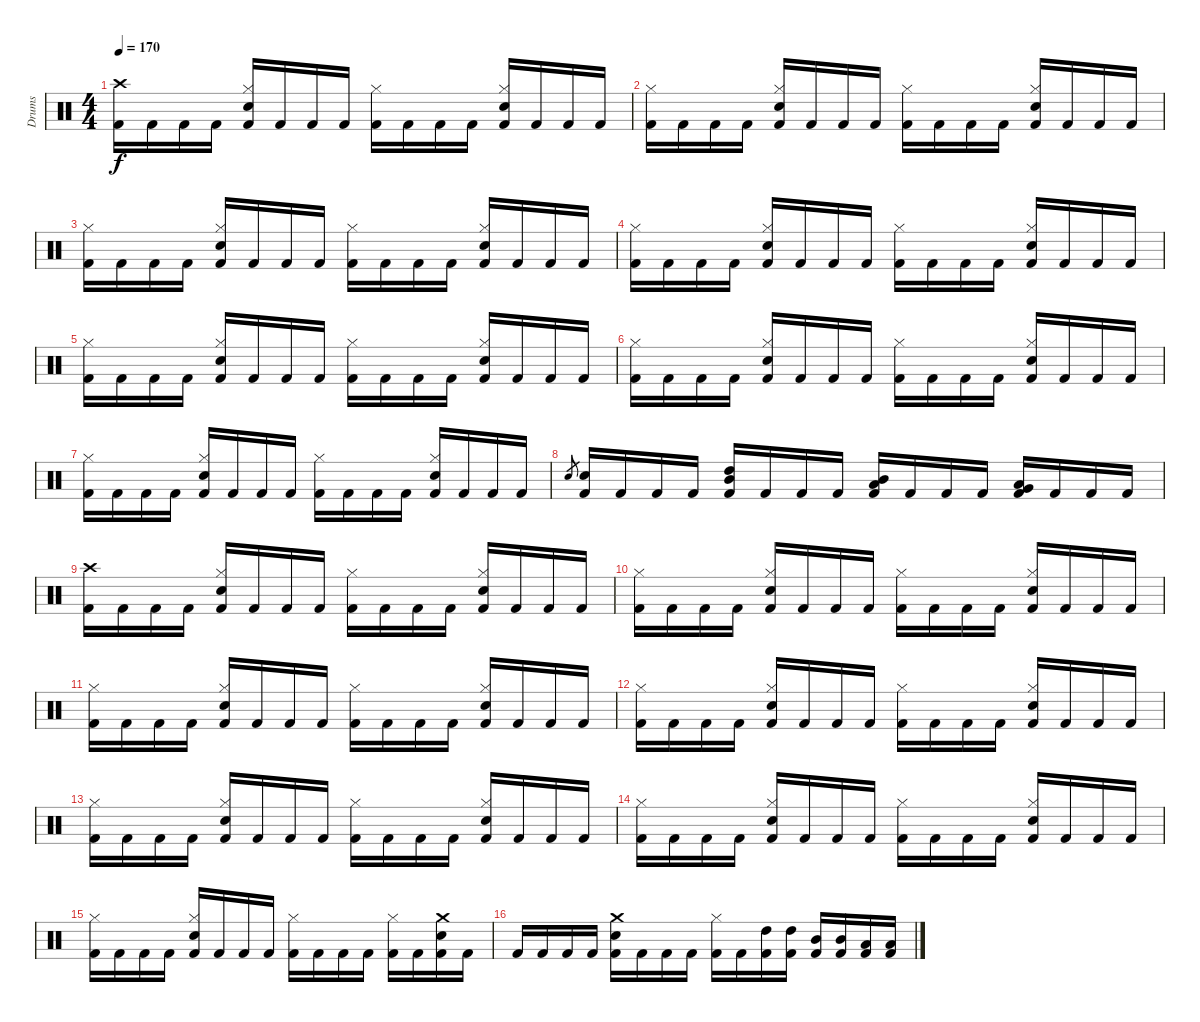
\track ("Drums" "Drums") {instrument percussion}
\staff {score}
\articulation defaults
\ts (4 4)
\tempo 170
\clef neutral
\ks c
("Crash high (hit)" "Kick (hit) 2").16{dy f} "Kick (hit) 2".16 "Kick (hit) 2".16 "Kick (hit) 2".16 ("Hi-Hat (closed)" "Snare (hit) 2" "Kick (hit) 2").16 "Kick (hit) 2".16 "Kick (hit) 2".16 "Kick (hit) 2".16 ("Hi-Hat (closed)" "Kick (hit) 2").16 "Kick (hit) 2".16 "Kick (hit) 2".16 "Kick (hit) 2".16 ("Hi-Hat (closed)" "Snare (hit) 2" "Kick (hit) 2").16 "Kick (hit) 2".16 "Kick (hit) 2".16 "Kick (hit) 2".16 |
("Hi-Hat (closed)" "Kick (hit) 2").16 "Kick (hit) 2".16 "Kick (hit) 2".16 "Kick (hit) 2".16 ("Hi-Hat (closed)" "Snare (hit) 2" "Kick (hit) 2").16 "Kick (hit) 2".16 "Kick (hit) 2".16 "Kick (hit) 2".16 ("Hi-Hat (closed)" "Kick (hit) 2").16 "Kick (hit) 2".16 "Kick (hit) 2".16 "Kick (hit) 2".16 ("Hi-Hat (closed)" "Snare (hit) 2" "Kick (hit) 2").16 "Kick (hit) 2".16 "Kick (hit) 2".16 "Kick (hit) 2".16 |
("Hi-Hat (closed)" "Kick (hit) 2").16 "Kick (hit) 2".16 "Kick (hit) 2".16 "Kick (hit) 2".16 ("Hi-Hat (closed)" "Snare (hit) 2" "Kick (hit) 2").16 "Kick (hit) 2".16 "Kick (hit) 2".16 "Kick (hit) 2".16 ("Hi-Hat (closed)" "Kick (hit) 2").16 "Kick (hit) 2".16 "Kick (hit) 2".16 "Kick (hit) 2".16 ("Hi-Hat (closed)" "Snare (hit) 2" "Kick (hit) 2").16 "Kick (hit) 2".16 "Kick (hit) 2".16 "Kick (hit) 2".16 |
("Hi-Hat (closed)" "Kick (hit) 2").16 "Kick (hit) 2".16 "Kick (hit) 2".16 "Kick (hit) 2".16 ("Hi-Hat (closed)" "Snare (hit) 2" "Kick (hit) 2").16 "Kick (hit) 2".16 "Kick (hit) 2".16 "Kick (hit) 2".16 ("Hi-Hat (closed)" "Kick (hit) 2").16 "Kick (hit) 2".16 "Kick (hit) 2".16 "Kick (hit) 2".16 ("Hi-Hat (closed)" "Snare (hit) 2" "Kick (hit) 2").16 "Kick (hit) 2".16 "Kick (hit) 2".16 "Kick (hit) 2".16 |
("Hi-Hat (closed)" "Kick (hit) 2").16 "Kick (hit) 2".16 "Kick (hit) 2".16 "Kick (hit) 2".16 ("Hi-Hat (closed)" "Snare (hit) 2" "Kick (hit) 2").16 "Kick (hit) 2".16 "Kick (hit) 2".16 "Kick (hit) 2".16 ("Hi-Hat (closed)" "Kick (hit) 2").16 "Kick (hit) 2".16 "Kick (hit) 2".16 "Kick (hit) 2".16 ("Hi-Hat (closed)" "Snare (hit) 2" "Kick (hit) 2").16 "Kick (hit) 2".16 "Kick (hit) 2".16 "Kick (hit) 2".16 |
("Hi-Hat (closed)" "Kick (hit) 2").16 "Kick (hit) 2".16 "Kick (hit) 2".16 "Kick (hit) 2".16 ("Hi-Hat (closed)" "Snare (hit) 2" "Kick (hit) 2").16 "Kick (hit) 2".16 "Kick (hit) 2".16 "Kick (hit) 2".16 ("Hi-Hat (closed)" "Kick (hit) 2").16 "Kick (hit) 2".16 "Kick (hit) 2".16 "Kick (hit) 2".16 ("Hi-Hat (closed)" "Snare (hit) 2" "Kick (hit) 2").16 "Kick (hit) 2".16 "Kick (hit) 2".16 "Kick (hit) 2".16 |
("Hi-Hat (closed)" "Kick (hit) 2").16 "Kick (hit) 2".16 "Kick (hit) 2".16 "Kick (hit) 2".16 ("Hi-Hat (closed)" "Snare (hit) 2" "Kick (hit) 2").16 "Kick (hit) 2".16 "Kick (hit) 2".16 "Kick (hit) 2".16 ("Hi-Hat (closed)" "Kick (hit) 2").16 "Kick (hit) 2".16 "Kick (hit) 2".16 "Kick (hit) 2".16 ("Hi-Hat (closed)" "Snare (hit) 2" "Kick (hit) 2").16 "Kick (hit) 2".16 "Kick (hit) 2".16 "Kick (hit) 2".16 |
"Snare (hit) 2".8{gr} ("Snare (hit) 2" "Kick (hit) 2").16 "Kick (hit) 2".16 "Kick (hit) 2".16 "Kick (hit) 2".16 ("High Tom (hit)" "Mid Tom (hit)" "Kick (hit) 2").16 "Kick (hit) 2".16 "Kick (hit) 2".16 "Kick (hit) 2".16 ("Mid Tom (hit)" "Low Tom (hit)" "Kick (hit) 2").16 "Kick (hit) 2".16 "Kick (hit) 2".16 "Kick (hit) 2".16 ("Low Tom (hit)" "Very Low Tom (hit)" "Kick (hit) 2").16 "Kick (hit) 2".16 "Kick (hit) 2".16 "Kick (hit) 2".16 |
("Crash high (hit)" "Kick (hit) 2").16 "Kick (hit) 2".16 "Kick (hit) 2".16 "Kick (hit) 2".16 ("Hi-Hat (closed)" "Snare (hit) 2" "Kick (hit) 2").16 "Kick (hit) 2".16 "Kick (hit) 2".16 "Kick (hit) 2".16 ("Hi-Hat (closed)" "Kick (hit) 2").16 "Kick (hit) 2".16 "Kick (hit) 2".16 "Kick (hit) 2".16 ("Hi-Hat (closed)" "Snare (hit) 2" "Kick (hit) 2").16 "Kick (hit) 2".16 "Kick (hit) 2".16 "Kick (hit) 2".16 |
("Hi-Hat (closed)" "Kick (hit) 2").16 "Kick (hit) 2".16 "Kick (hit) 2".16 "Kick (hit) 2".16 ("Hi-Hat (closed)" "Snare (hit) 2" "Kick (hit) 2").16 "Kick (hit) 2".16 "Kick (hit) 2".16 "Kick (hit) 2".16 ("Hi-Hat (closed)" "Kick (hit) 2").16 "Kick (hit) 2".16 "Kick (hit) 2".16 "Kick (hit) 2".16 ("Hi-Hat (closed)" "Snare (hit) 2" "Kick (hit) 2").16 "Kick (hit) 2".16 "Kick (hit) 2".16 "Kick (hit) 2".16 |
("Hi-Hat (closed)" "Kick (hit) 2").16 "Kick (hit) 2".16 "Kick (hit) 2".16 "Kick (hit) 2".16 ("Hi-Hat (closed)" "Snare (hit) 2" "Kick (hit) 2").16 "Kick (hit) 2".16 "Kick (hit) 2".16 "Kick (hit) 2".16 ("Hi-Hat (closed)" "Kick (hit) 2").16 "Kick (hit) 2".16 "Kick (hit) 2".16 "Kick (hit) 2".16 ("Hi-Hat (closed)" "Snare (hit) 2" "Kick (hit) 2").16 "Kick (hit) 2".16 "Kick (hit) 2".16 "Kick (hit) 2".16 |
("Hi-Hat (closed)" "Kick (hit) 2").16 "Kick (hit) 2".16 "Kick (hit) 2".16 "Kick (hit) 2".16 ("Hi-Hat (closed)" "Snare (hit) 2" "Kick (hit) 2").16 "Kick (hit) 2".16 "Kick (hit) 2".16 "Kick (hit) 2".16 ("Hi-Hat (closed)" "Kick (hit) 2").16 "Kick (hit) 2".16 "Kick (hit) 2".16 "Kick (hit) 2".16 ("Hi-Hat (closed)" "Snare (hit) 2" "Kick (hit) 2").16 "Kick (hit) 2".16 "Kick (hit) 2".16 "Kick (hit) 2".16 |
("Hi-Hat (closed)" "Kick (hit) 2").16 "Kick (hit) 2".16 "Kick (hit) 2".16 "Kick (hit) 2".16 ("Hi-Hat (closed)" "Snare (hit) 2" "Kick (hit) 2").16 "Kick (hit) 2".16 "Kick (hit) 2".16 "Kick (hit) 2".16 ("Hi-Hat (closed)" "Kick (hit) 2").16 "Kick (hit) 2".16 "Kick (hit) 2".16 "Kick (hit) 2".16 ("Hi-Hat (closed)" "Snare (hit) 2" "Kick (hit) 2").16 "Kick (hit) 2".16 "Kick (hit) 2".16 "Kick (hit) 2".16 |
("Hi-Hat (closed)" "Kick (hit) 2").16 "Kick (hit) 2".16 "Kick (hit) 2".16 "Kick (hit) 2".16 ("Hi-Hat (closed)" "Snare (hit) 2" "Kick (hit) 2").16 "Kick (hit) 2".16 "Kick (hit) 2".16 "Kick (hit) 2".16 ("Hi-Hat (closed)" "Kick (hit) 2").16 "Kick (hit) 2".16 "Kick (hit) 2".16 "Kick (hit) 2".16 ("Hi-Hat (closed)" "Snare (hit) 2" "Kick (hit) 2").16 "Kick (hit) 2".16 "Kick (hit) 2".16 "Kick (hit) 2".16 |
("Hi-Hat (closed)" "Kick (hit) 2").16 "Kick (hit) 2".16 "Kick (hit) 2".16 "Kick (hit) 2".16 ("Hi-Hat (closed)" "Snare (hit) 2" "Kick (hit) 2").16 "Kick (hit) 2".16 "Kick (hit) 2".16 "Kick (hit) 2".16 ("Hi-Hat (closed)" "Kick (hit) 2").16 "Kick (hit) 2".16 "Kick (hit) 2".16 "Kick (hit) 2".16 ("Hi-Hat (closed)" "Kick (hit) 2").16 "Kick (hit) 2".16 ("Crash medium (hit)" "Snare (hit) 2" "Kick (hit) 2").16 "Kick (hit) 2".16 |
"Kick (hit) 2".16 "Kick (hit) 2".16 "Kick (hit) 2".16 "Kick (hit) 2".16 ("Crash medium (hit)" "Snare (hit) 2" "Kick (hit) 2").16 "Kick (hit) 2".16 "Kick (hit) 2".16 "Kick (hit) 2".16 ("Hi-Hat (closed)" "Kick (hit) 2").16 "Kick (hit) 2".16 ("High Tom (hit)" "Kick (hit) 2").16 ("High Tom (hit)" "Kick (hit) 2").16 ("Mid Tom (hit)" "Kick (hit) 2").16 ("Mid Tom (hit)" "Kick (hit) 2").16 ("Low Tom (hit)" "Kick (hit) 2").16 ("Low Tom (hit)" "Kick (hit) 2").16
